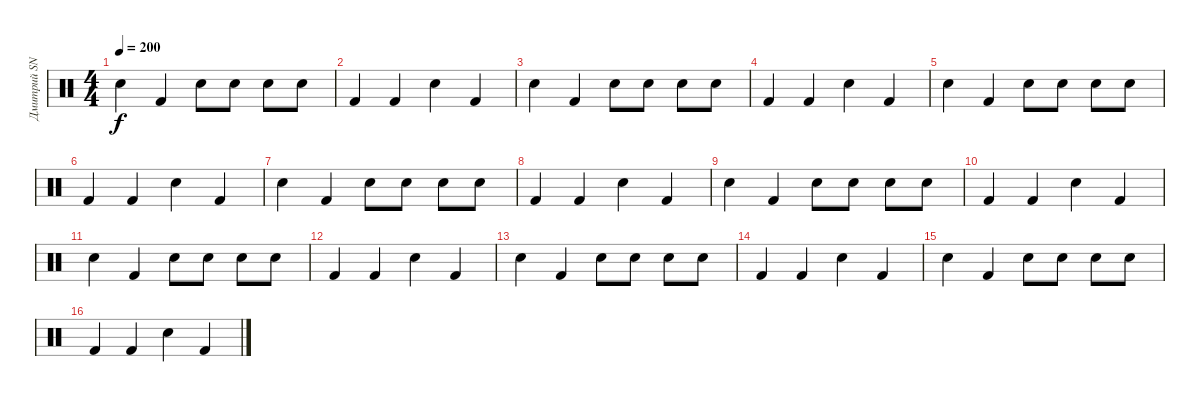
\track ("Дмитрий SNAKE Хакимов" "Дмитрий SN") {instrument percussion}
\staff {score}
\articulation defaults
\ts (4 4)
\tempo 200
\clef neutral
\ks c "Electric Snare (hit)".4{dy f} "Kick (hit) 2".4 "Electric Snare (hit)".8 "Electric Snare (hit)".8 "Electric Snare (hit)".8 "Electric Snare (hit)".8
|
"Kick (hit) 2".4 "Kick (hit) 2".4 "Electric Snare (hit)".4 "Kick (hit) 2".4 |
"Electric Snare (hit)".4 "Kick (hit) 2".4 "Electric Snare (hit)".8 "Electric Snare (hit)".8 "Electric Snare (hit)".8 "Electric Snare (hit)".8 |
"Kick (hit) 2".4 "Kick (hit) 2".4 "Electric Snare (hit)".4 "Kick (hit) 2".4 |
"Electric Snare (hit)".4 "Kick (hit) 2".4 "Electric Snare (hit)".8 "Electric Snare (hit)".8 "Electric Snare (hit)".8 "Electric Snare (hit)".8 |
"Kick (hit) 2".4 "Kick (hit) 2".4 "Electric Snare (hit)".4 "Kick (hit) 2".4 |
"Electric Snare (hit)".4 "Kick (hit) 2".4 "Electric Snare (hit)".8 "Electric Snare (hit)".8 "Electric Snare (hit)".8 "Electric Snare (hit)".8 |
"Kick (hit) 2".4 "Kick (hit) 2".4 "Electric Snare (hit)".4 "Kick (hit) 2".4 |
"Electric Snare (hit)".4 "Kick (hit) 2".4 "Electric Snare (hit)".8 "Electric Snare (hit)".8 "Electric Snare (hit)".8 "Electric Snare (hit)".8 |
"Kick (hit) 2".4 "Kick (hit) 2".4 "Electric Snare (hit)".4 "Kick (hit) 2".4 |
"Electric Snare (hit)".4 "Kick (hit) 2".4 "Electric Snare (hit)".8 "Electric Snare (hit)".8 "Electric Snare (hit)".8 "Electric Snare (hit)".8 |
"Kick (hit) 2".4 "Kick (hit) 2".4 "Electric Snare (hit)".4 "Kick (hit) 2".4 |
"Electric Snare (hit)".4 "Kick (hit) 2".4 "Electric Snare (hit)".8 "Electric Snare (hit)".8 "Electric Snare (hit)".8 "Electric Snare (hit)".8 |
"Kick (hit) 2".4 "Kick (hit) 2".4 "Electric Snare (hit)".4 "Kick (hit) 2".4 |
"Electric Snare (hit)".4 "Kick (hit) 2".4 "Electric Snare (hit)".8 "Electric Snare (hit)".8 "Electric Snare (hit)".8 "Electric Snare (hit)".8 |
"Kick (hit) 2".4 "Kick (hit) 2".4 "Electric Snare (hit)".4 "Kick (hit) 2".4
